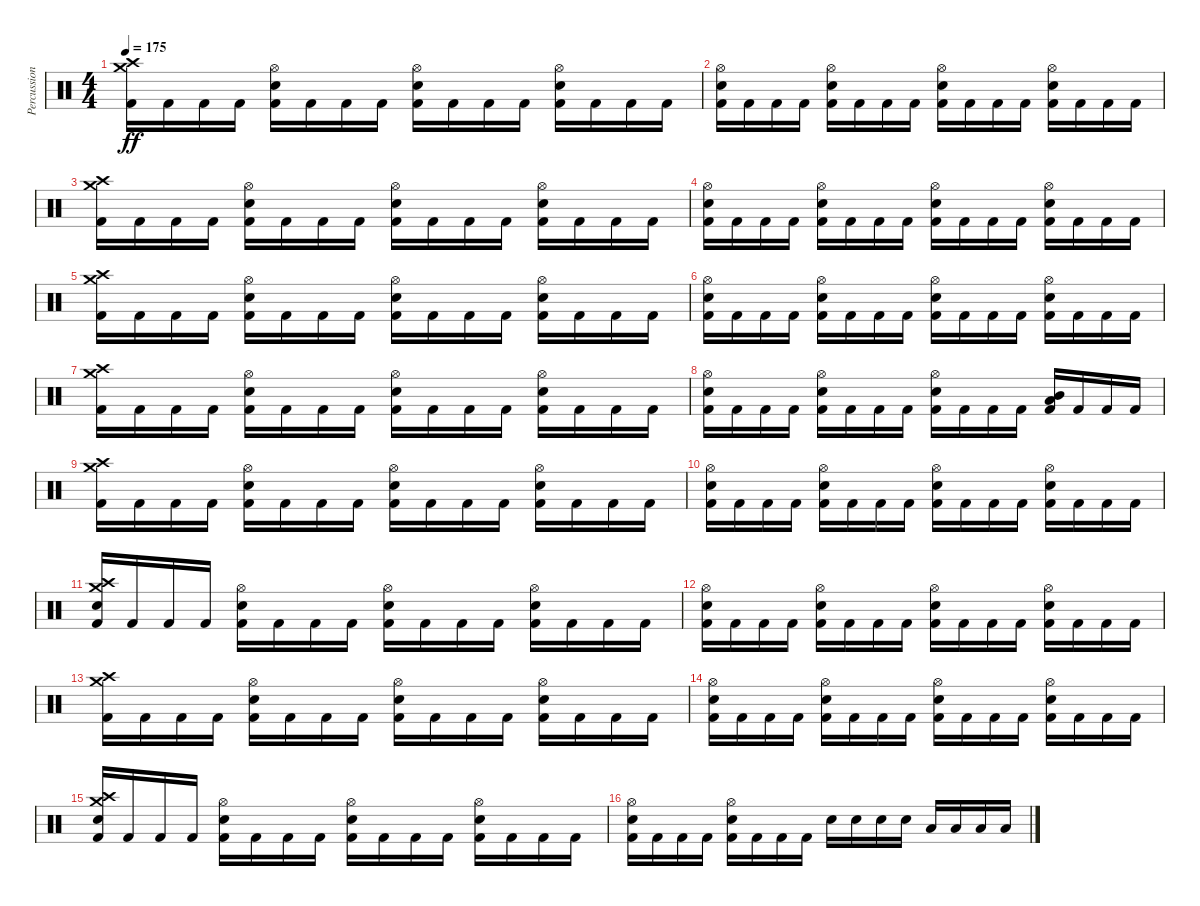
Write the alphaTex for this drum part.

\track ("Percussion" "Percussion") {instrument percussion}
\staff {score}
\articulation defaults
\ts (4 4)
\tempo 175
\clef neutral
\ks c
("Kick (hit) 2" "Crash medium (hit)" "Crash high (hit)").16{dy ff} "Kick (hit) 2".16 "Kick (hit) 2".16 "Kick (hit) 2".16 ("Kick (hit) 2" "Electric Snare (hit)" "Hi-Hat (open)").16 "Kick (hit) 2".16 "Kick (hit) 2".16 "Kick (hit) 2".16 ("Kick (hit) 2" "Electric Snare (hit)" "Hi-Hat (open)").16 "Kick (hit) 2".16 "Kick (hit) 2".16 "Kick (hit) 2".16 ("Kick (hit) 2" "Electric Snare (hit)" "Hi-Hat (open)").16 "Kick (hit) 2".16 "Kick (hit) 2".16 "Kick (hit) 2".16 |
("Kick (hit) 2" "Electric Snare (hit)" "Hi-Hat (open)").16 "Kick (hit) 2".16 "Kick (hit) 2".16 "Kick (hit) 2".16 ("Kick (hit) 2" "Electric Snare (hit)" "Hi-Hat (open)").16 "Kick (hit) 2".16 "Kick (hit) 2".16 "Kick (hit) 2".16 ("Kick (hit) 2" "Electric Snare (hit)" "Hi-Hat (open)").16 "Kick (hit) 2".16 "Kick (hit) 2".16 "Kick (hit) 2".16 ("Kick (hit) 2" "Electric Snare (hit)" "Hi-Hat (open)").16 "Kick (hit) 2".16 "Kick (hit) 2".16 "Kick (hit) 2".16 |
("Kick (hit) 2" "Crash medium (hit)" "Crash high (hit)").16 "Kick (hit) 2".16 "Kick (hit) 2".16 "Kick (hit) 2".16 ("Kick (hit) 2" "Electric Snare (hit)" "Hi-Hat (open)").16 "Kick (hit) 2".16 "Kick (hit) 2".16 "Kick (hit) 2".16 ("Kick (hit) 2" "Electric Snare (hit)" "Hi-Hat (open)").16 "Kick (hit) 2".16 "Kick (hit) 2".16 "Kick (hit) 2".16 ("Kick (hit) 2" "Electric Snare (hit)" "Hi-Hat (open)").16 "Kick (hit) 2".16 "Kick (hit) 2".16 "Kick (hit) 2".16 |
("Kick (hit) 2" "Electric Snare (hit)" "Hi-Hat (open)").16 "Kick (hit) 2".16 "Kick (hit) 2".16 "Kick (hit) 2".16 ("Kick (hit) 2" "Electric Snare (hit)" "Hi-Hat (open)").16 "Kick (hit) 2".16 "Kick (hit) 2".16 "Kick (hit) 2".16 ("Kick (hit) 2" "Electric Snare (hit)" "Hi-Hat (open)").16 "Kick (hit) 2".16 "Kick (hit) 2".16 "Kick (hit) 2".16 ("Kick (hit) 2" "Electric Snare (hit)" "Hi-Hat (open)").16 "Kick (hit) 2".16 "Kick (hit) 2".16 "Kick (hit) 2".16 |
("Kick (hit) 2" "Crash medium (hit)" "Crash high (hit)").16 "Kick (hit) 2".16 "Kick (hit) 2".16 "Kick (hit) 2".16 ("Kick (hit) 2" "Electric Snare (hit)" "Hi-Hat (open)").16 "Kick (hit) 2".16 "Kick (hit) 2".16 "Kick (hit) 2".16 ("Kick (hit) 2" "Electric Snare (hit)" "Hi-Hat (open)").16 "Kick (hit) 2".16 "Kick (hit) 2".16 "Kick (hit) 2".16 ("Kick (hit) 2" "Electric Snare (hit)" "Hi-Hat (open)").16 "Kick (hit) 2".16 "Kick (hit) 2".16 "Kick (hit) 2".16 |
("Kick (hit) 2" "Electric Snare (hit)" "Hi-Hat (open)").16 "Kick (hit) 2".16 "Kick (hit) 2".16 "Kick (hit) 2".16 ("Kick (hit) 2" "Electric Snare (hit)" "Hi-Hat (open)").16 "Kick (hit) 2".16 "Kick (hit) 2".16 "Kick (hit) 2".16 ("Kick (hit) 2" "Electric Snare (hit)" "Hi-Hat (open)").16 "Kick (hit) 2".16 "Kick (hit) 2".16 "Kick (hit) 2".16 ("Kick (hit) 2" "Electric Snare (hit)" "Hi-Hat (open)").16 "Kick (hit) 2".16 "Kick (hit) 2".16 "Kick (hit) 2".16 |
("Kick (hit) 2" "Crash medium (hit)" "Crash high (hit)").16 "Kick (hit) 2".16 "Kick (hit) 2".16 "Kick (hit) 2".16 ("Kick (hit) 2" "Electric Snare (hit)" "Hi-Hat (open)").16 "Kick (hit) 2".16 "Kick (hit) 2".16 "Kick (hit) 2".16 ("Kick (hit) 2" "Electric Snare (hit)" "Hi-Hat (open)").16 "Kick (hit) 2".16 "Kick (hit) 2".16 "Kick (hit) 2".16 ("Kick (hit) 2" "Electric Snare (hit)" "Hi-Hat (open)").16 "Kick (hit) 2".16 "Kick (hit) 2".16 "Kick (hit) 2".16 |
("Kick (hit) 2" "Electric Snare (hit)" "Hi-Hat (open)").16 "Kick (hit) 2".16 "Kick (hit) 2".16 "Kick (hit) 2".16 ("Kick (hit) 2" "Electric Snare (hit)" "Hi-Hat (open)").16 "Kick (hit) 2".16 "Kick (hit) 2".16 "Kick (hit) 2".16 ("Kick (hit) 2" "Electric Snare (hit)" "Hi-Hat (open)").16 "Kick (hit) 2".16 "Kick (hit) 2".16 "Kick (hit) 2".16 ("Kick (hit) 2" "Low Tom (hit)" "Mid Tom (hit)").16 "Kick (hit) 2".16 "Kick (hit) 2".16 "Kick (hit) 2".16 |
("Kick (hit) 2" "Crash medium (hit)" "Crash high (hit)").16 "Kick (hit) 2".16 "Kick (hit) 2".16 "Kick (hit) 2".16 ("Kick (hit) 2" "Electric Snare (hit)" "Hi-Hat (open)").16 "Kick (hit) 2".16 "Kick (hit) 2".16 "Kick (hit) 2".16 ("Kick (hit) 2" "Electric Snare (hit)" "Hi-Hat (open)").16 "Kick (hit) 2".16 "Kick (hit) 2".16 "Kick (hit) 2".16 ("Kick (hit) 2" "Electric Snare (hit)" "Hi-Hat (open)").16 "Kick (hit) 2".16 "Kick (hit) 2".16 "Kick (hit) 2".16 |
("Kick (hit) 2" "Electric Snare (hit)" "Hi-Hat (open)").16 "Kick (hit) 2".16 "Kick (hit) 2".16 "Kick (hit) 2".16 ("Kick (hit) 2" "Electric Snare (hit)" "Hi-Hat (open)").16 "Kick (hit) 2".16 "Kick (hit) 2".16 "Kick (hit) 2".16 ("Kick (hit) 2" "Electric Snare (hit)" "Hi-Hat (open)").16 "Kick (hit) 2".16 "Kick (hit) 2".16 "Kick (hit) 2".16 ("Kick (hit) 2" "Electric Snare (hit)" "Hi-Hat (open)").16 "Kick (hit) 2".16 "Kick (hit) 2".16 "Kick (hit) 2".16 |
("Kick (hit) 2" "Electric Snare (hit)" "Crash medium (hit)" "Crash high (hit)").16 "Kick (hit) 2".16 "Kick (hit) 2".16 "Kick (hit) 2".16 ("Kick (hit) 2" "Electric Snare (hit)" "Hi-Hat (open)").16 "Kick (hit) 2".16 "Kick (hit) 2".16 "Kick (hit) 2".16 ("Kick (hit) 2" "Electric Snare (hit)" "Hi-Hat (open)").16 "Kick (hit) 2".16 "Kick (hit) 2".16 "Kick (hit) 2".16 ("Kick (hit) 2" "Electric Snare (hit)" "Hi-Hat (open)").16 "Kick (hit) 2".16 "Kick (hit) 2".16 "Kick (hit) 2".16 |
("Kick (hit) 2" "Electric Snare (hit)" "Hi-Hat (open)").16 "Kick (hit) 2".16 "Kick (hit) 2".16 "Kick (hit) 2".16 ("Kick (hit) 2" "Electric Snare (hit)" "Hi-Hat (open)").16 "Kick (hit) 2".16 "Kick (hit) 2".16 "Kick (hit) 2".16 ("Kick (hit) 2" "Electric Snare (hit)" "Hi-Hat (open)").16 "Kick (hit) 2".16 "Kick (hit) 2".16 "Kick (hit) 2".16 ("Kick (hit) 2" "Electric Snare (hit)" "Hi-Hat (open)").16 "Kick (hit) 2".16 "Kick (hit) 2".16 "Kick (hit) 2".16 |
("Kick (hit) 2" "Crash medium (hit)" "Crash high (hit)").16 "Kick (hit) 2".16 "Kick (hit) 2".16 "Kick (hit) 2".16 ("Kick (hit) 2" "Electric Snare (hit)" "Hi-Hat (open)").16 "Kick (hit) 2".16 "Kick (hit) 2".16 "Kick (hit) 2".16 ("Kick (hit) 2" "Electric Snare (hit)" "Hi-Hat (open)").16 "Kick (hit) 2".16 "Kick (hit) 2".16 "Kick (hit) 2".16 ("Kick (hit) 2" "Electric Snare (hit)" "Hi-Hat (open)").16 "Kick (hit) 2".16 "Kick (hit) 2".16 "Kick (hit) 2".16 |
("Kick (hit) 2" "Electric Snare (hit)" "Hi-Hat (open)").16 "Kick (hit) 2".16 "Kick (hit) 2".16 "Kick (hit) 2".16 ("Kick (hit) 2" "Electric Snare (hit)" "Hi-Hat (open)").16 "Kick (hit) 2".16 "Kick (hit) 2".16 "Kick (hit) 2".16 ("Kick (hit) 2" "Electric Snare (hit)" "Hi-Hat (open)").16 "Kick (hit) 2".16 "Kick (hit) 2".16 "Kick (hit) 2".16 ("Kick (hit) 2" "Electric Snare (hit)" "Hi-Hat (open)").16 "Kick (hit) 2".16 "Kick (hit) 2".16 "Kick (hit) 2".16 |
("Kick (hit) 2" "Electric Snare (hit)" "Crash medium (hit)" "Crash high (hit)").16 "Kick (hit) 2".16 "Kick (hit) 2".16 "Kick (hit) 2".16 ("Kick (hit) 2" "Electric Snare (hit)" "Hi-Hat (open)").16 "Kick (hit) 2".16 "Kick (hit) 2".16 "Kick (hit) 2".16 ("Kick (hit) 2" "Electric Snare (hit)" "Hi-Hat (open)").16 "Kick (hit) 2".16 "Kick (hit) 2".16 "Kick (hit) 2".16 ("Kick (hit) 2" "Electric Snare (hit)" "Hi-Hat (open)").16 "Kick (hit) 2".16 "Kick (hit) 2".16 "Kick (hit) 2".16 |
("Kick (hit) 2" "Electric Snare (hit)" "Hi-Hat (open)").16 "Kick (hit) 2".16 "Kick (hit) 2".16 "Kick (hit) 2".16 ("Kick (hit) 2" "Electric Snare (hit)" "Hi-Hat (open)").16 "Kick (hit) 2".16 "Kick (hit) 2".16 "Kick (hit) 2".16 "Electric Snare (hit)".16 "Electric Snare (hit)".16 "Electric Snare (hit)".16 "Electric Snare (hit)".16 "Low Floor Tom (hit)".16 "Low Floor Tom (hit)".16 "Low Floor Tom (hit)".16 "Low Floor Tom (hit)".16
